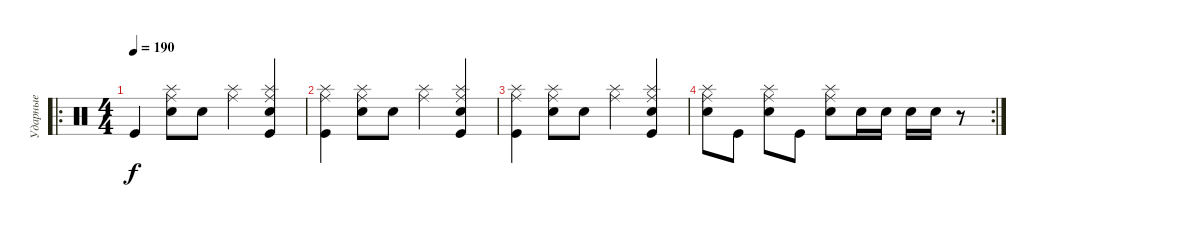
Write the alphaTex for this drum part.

\track ("Ударные" "Ударные") {instrument percussion}
\staff {score}
\articulation defaults
\ro
\ts (4 4)
\tempo 190
\clef neutral
\ks c "Kick (hit)".4{dy f}
("Splash (hit)" "Ride (middle)" "Electric Snare (hit)").8 "Electric Snare (hit)".8 ("Splash (hit)" "Ride (middle)").4 ("Splash (hit)" "Ride (middle)" "Electric Snare (hit)" "Kick (hit)").4 |
("Splash (hit)" "Ride (middle)" "Kick (hit)").4 ("Splash (hit)" "Ride (middle)" "Electric Snare (hit)").8 "Electric Snare (hit)".8 ("Splash (hit)" "Ride (middle)").4 ("Splash (hit)" "Ride (middle)" "Electric Snare (hit)" "Kick (hit)").4 |
("Splash (hit)" "Ride (middle)" "Kick (hit)").4 ("Splash (hit)" "Ride (middle)" "Electric Snare (hit)").8 "Electric Snare (hit)".8 ("Splash (hit)" "Ride (middle)").4 ("Splash (hit)" "Ride (middle)" "Electric Snare (hit)" "Kick (hit)").4 |
\rc 2
("Splash (hit)" "Ride (middle)" "Electric Snare (hit)").8 "Kick (hit)".8 ("Splash (hit)" "Ride (middle)" "Electric Snare (hit)").8 "Kick (hit)".8 ("Splash (hit)" "Ride (middle)" "Electric Snare (hit)").8 "Electric Snare (hit)".16 "Electric Snare (hit)".16 "Electric Snare (hit)".16 "Electric Snare (hit)".16 r.8
